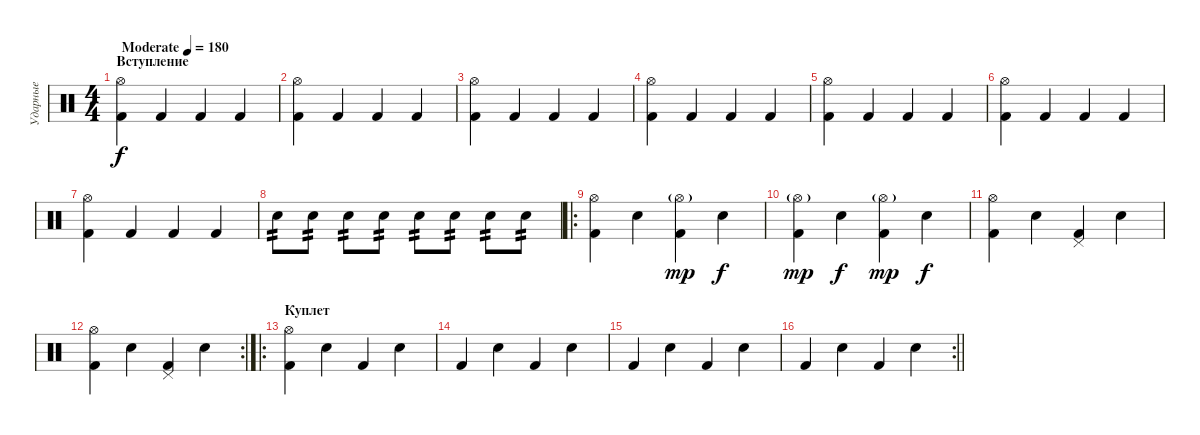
\track ("Ударные" "Ударные") {instrument percussion}
\staff {score}
\articulation defaults
\ts (4 4)
\section ("" "Вступление")
\tempo (180 "Moderate")
\clef neutral
\ks c
("Kick (hit) 2" "Hi-Hat (open)").4{dy f} "Kick (hit) 2".4 "Kick (hit) 2".4 "Kick (hit) 2".4 |
("Kick (hit) 2" "Hi-Hat (open)").4 "Kick (hit) 2".4 "Kick (hit) 2".4 "Kick (hit) 2".4 |
("Kick (hit) 2" "Hi-Hat (open)").4 "Kick (hit) 2".4 "Kick (hit) 2".4 "Kick (hit) 2".4 |
("Kick (hit) 2" "Hi-Hat (open)").4 "Kick (hit) 2".4 "Kick (hit) 2".4 "Kick (hit) 2".4 |
("Kick (hit) 2" "Hi-Hat (open)").4 "Kick (hit) 2".4 "Kick (hit) 2".4 "Kick (hit) 2".4 |
("Kick (hit) 2" "Hi-Hat (open)").4 "Kick (hit) 2".4 "Kick (hit) 2".4 "Kick (hit) 2".4 |
("Kick (hit) 2" "Hi-Hat (open)").4 "Kick (hit) 2".4 "Kick (hit) 2".4 "Kick (hit) 2".4 |
"Snare (hit) 2".8{tp 2} "Snare (hit) 2".8{tp 2} "Snare (hit) 2".8{tp 2} "Snare (hit) 2".8{tp 2} "Snare (hit) 2".8{tp 2} "Snare (hit) 2".8{tp 2} "Snare (hit) 2".8{tp 2} "Snare (hit) 2".8{tp 2} |
\ro
("Hi-Hat (open)" "Kick (hit) 2").4 "Snare (hit) 2".4 ("Hi-Hat (open)"{g} "Kick (hit) 2").4{dy mp} "Snare (hit) 2".4{dy f} |
("Hi-Hat (open)"{g} "Kick (hit) 2").4{dy mp} "Snare (hit) 2".4{dy f} ("Hi-Hat (open)"{g} "Kick (hit) 2").4{dy mp} "Snare (hit) 2".4{dy f} |
("Hi-Hat (open)" "Kick (hit) 2").4 "Snare (hit) 2".4 ("Pedal Hi-Hat (hit)" "Kick (hit) 2").4 "Snare (hit) 2".4 |
\rc 2
("Hi-Hat (open)" "Kick (hit) 2").4 "Snare (hit) 2".4 ("Pedal Hi-Hat (hit)" "Kick (hit) 2").4 "Snare (hit) 2".4 |
\ro
\section ("" "Куплет")
("Hi-Hat (open)" "Kick (hit) 2").4 "Snare (hit) 2".4 "Kick (hit) 2".4 "Snare (hit) 2".4 |
"Kick (hit) 2".4 "Snare (hit) 2".4 "Kick (hit) 2".4 "Snare (hit) 2".4 |
"Kick (hit) 2".4 "Snare (hit) 2".4 "Kick (hit) 2".4 "Snare (hit) 2".4 |
\rc 2
\barLineRight lightlight "Kick (hit) 2".4 "Snare (hit) 2".4 "Kick (hit) 2".4 "Snare (hit) 2".4
